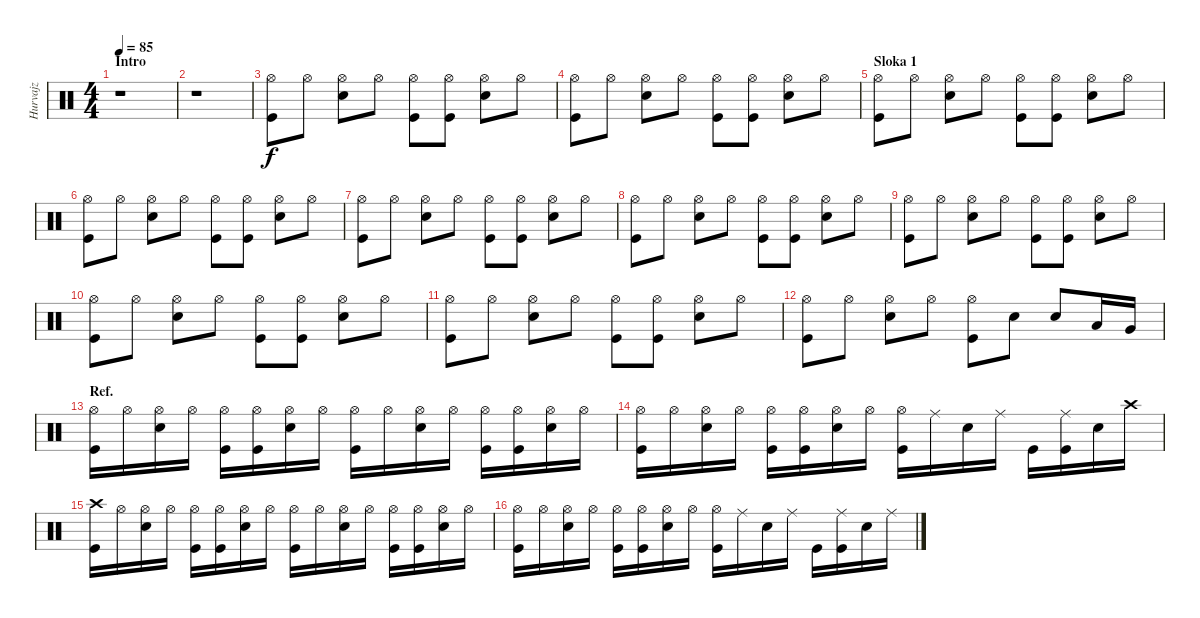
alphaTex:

\track ("Hurvajz" "Hurvajz") {instrument percussion}
\staff {score}
\articulation defaults
\ts (4 4)
\section ("" "Intro")
\tempo 85
\clef neutral
\ks c
r.1{dy f} |
r.1 |
("Hi-Hat (open)" "Kick (hit)").8 "Hi-Hat (open)".8 ("Hi-Hat (open)" "Snare (hit) 2").8 "Hi-Hat (open)".8 ("Hi-Hat (open)" "Kick (hit)").8 ("Hi-Hat (open)" "Kick (hit)").8 ("Hi-Hat (open)" "Snare (hit) 2").8 "Hi-Hat (open)".8 |
("Hi-Hat (open)" "Kick (hit)").8 "Hi-Hat (open)".8 ("Hi-Hat (open)" "Snare (hit) 2").8 "Hi-Hat (open)".8 ("Hi-Hat (open)" "Kick (hit)").8 ("Hi-Hat (open)" "Kick (hit)").8 ("Hi-Hat (open)" "Snare (hit) 2").8 "Hi-Hat (open)".8 |
\section ("" "Sloka 1")
("Hi-Hat (open)" "Kick (hit)").8 "Hi-Hat (open)".8 ("Hi-Hat (open)" "Snare (hit) 2").8 "Hi-Hat (open)".8 ("Hi-Hat (open)" "Kick (hit)").8 ("Hi-Hat (open)" "Kick (hit)").8 ("Hi-Hat (open)" "Snare (hit) 2").8 "Hi-Hat (open)".8 |
("Hi-Hat (open)" "Kick (hit)").8 "Hi-Hat (open)".8 ("Hi-Hat (open)" "Snare (hit) 2").8 "Hi-Hat (open)".8 ("Hi-Hat (open)" "Kick (hit)").8 ("Hi-Hat (open)" "Kick (hit)").8 ("Hi-Hat (open)" "Snare (hit) 2").8 "Hi-Hat (open)".8 |
("Hi-Hat (open)" "Kick (hit)").8 "Hi-Hat (open)".8 ("Hi-Hat (open)" "Snare (hit) 2").8 "Hi-Hat (open)".8 ("Hi-Hat (open)" "Kick (hit)").8 ("Hi-Hat (open)" "Kick (hit)").8 ("Hi-Hat (open)" "Snare (hit) 2").8 "Hi-Hat (open)".8 |
("Hi-Hat (open)" "Kick (hit)").8 "Hi-Hat (open)".8 ("Hi-Hat (open)" "Snare (hit) 2").8 "Hi-Hat (open)".8 ("Hi-Hat (open)" "Kick (hit)").8 ("Hi-Hat (open)" "Kick (hit)").8 ("Hi-Hat (open)" "Snare (hit) 2").8 "Hi-Hat (open)".8 |
("Hi-Hat (open)" "Kick (hit)").8 "Hi-Hat (open)".8 ("Hi-Hat (open)" "Snare (hit) 2").8 "Hi-Hat (open)".8 ("Hi-Hat (open)" "Kick (hit)").8 ("Hi-Hat (open)" "Kick (hit)").8 ("Hi-Hat (open)" "Snare (hit) 2").8 "Hi-Hat (open)".8 |
("Hi-Hat (open)" "Kick (hit)").8 "Hi-Hat (open)".8 ("Hi-Hat (open)" "Snare (hit) 2").8 "Hi-Hat (open)".8 ("Hi-Hat (open)" "Kick (hit)").8 ("Hi-Hat (open)" "Kick (hit)").8 ("Hi-Hat (open)" "Snare (hit) 2").8 "Hi-Hat (open)".8 |
("Hi-Hat (open)" "Kick (hit)").8 "Hi-Hat (open)".8 ("Hi-Hat (open)" "Snare (hit) 2").8 "Hi-Hat (open)".8 ("Hi-Hat (open)" "Kick (hit)").8 ("Hi-Hat (open)" "Kick (hit)").8 ("Hi-Hat (open)" "Snare (hit) 2").8 "Hi-Hat (open)".8 |
("Hi-Hat (open)" "Kick (hit)").8 "Hi-Hat (open)".8 ("Hi-Hat (open)" "Snare (hit) 2").8 "Hi-Hat (open)".8 ("Hi-Hat (open)" "Kick (hit)").8 "Snare (hit) 2".8 "Snare (hit) 2".8 "Low Tom (hit)".16 "Very Low Tom (hit)".16 |
\section ("" "Ref.")
("Hi-Hat (open)" "Kick (hit)").16 "Hi-Hat (open)".16 ("Hi-Hat (open)" "Snare (hit) 2").16 "Hi-Hat (open)".16 ("Hi-Hat (open)" "Kick (hit)").16 ("Hi-Hat (open)" "Kick (hit)").16 ("Hi-Hat (open)" "Snare (hit) 2").16 "Hi-Hat (open)".16 ("Hi-Hat (open)" "Kick (hit)").16 "Hi-Hat (open)".16 ("Hi-Hat (open)" "Snare (hit) 2").16 "Hi-Hat (open)".16 ("Hi-Hat (open)" "Kick (hit)").16 ("Hi-Hat (open)" "Kick (hit)").16 ("Hi-Hat (open)" "Snare (hit) 2").16 "Hi-Hat (open)".16 |
("Hi-Hat (open)" "Kick (hit)").16 "Hi-Hat (open)".16 ("Hi-Hat (open)" "Snare (hit) 2").16 "Hi-Hat (open)".16 ("Hi-Hat (open)" "Kick (hit)").16 ("Hi-Hat (open)" "Kick (hit)").16 ("Hi-Hat (open)" "Snare (hit) 2").16 "Hi-Hat (open)".16 ("Hi-Hat (open)" "Kick (hit)").16 "Ride (middle)".16 "Snare (hit) 2".16 "Ride (middle)".16 "Kick (hit)".16 ("Ride (middle)" "Kick (hit)").16 "Snare (hit) 2".16 "Crash high (hit)".16 |
("Crash high (hit)" "Kick (hit)").16 "Hi-Hat (open)".16 ("Hi-Hat (open)" "Snare (hit) 2").16 "Hi-Hat (open)".16 ("Hi-Hat (open)" "Kick (hit)").16 ("Hi-Hat (open)" "Kick (hit)").16 ("Hi-Hat (open)" "Snare (hit) 2").16 "Hi-Hat (open)".16 ("Hi-Hat (open)" "Kick (hit)").16 "Hi-Hat (open)".16 ("Hi-Hat (open)" "Snare (hit) 2").16 "Hi-Hat (open)".16 ("Hi-Hat (open)" "Kick (hit)").16 ("Hi-Hat (open)" "Kick (hit)").16 ("Hi-Hat (open)" "Snare (hit) 2").16 "Hi-Hat (open)".16 |
("Hi-Hat (open)" "Kick (hit)").16 "Hi-Hat (open)".16 ("Hi-Hat (open)" "Snare (hit) 2").16 "Hi-Hat (open)".16 ("Hi-Hat (open)" "Kick (hit)").16 ("Hi-Hat (open)" "Kick (hit)").16 ("Hi-Hat (open)" "Snare (hit) 2").16 "Hi-Hat (open)".16 ("Hi-Hat (open)" "Kick (hit)").16 "Ride (middle)".16 "Snare (hit) 2".16 "Ride (middle)".16 "Kick (hit)".16 ("Ride (middle)" "Kick (hit)").16 "Snare (hit) 2".16 "Ride (middle)".16
